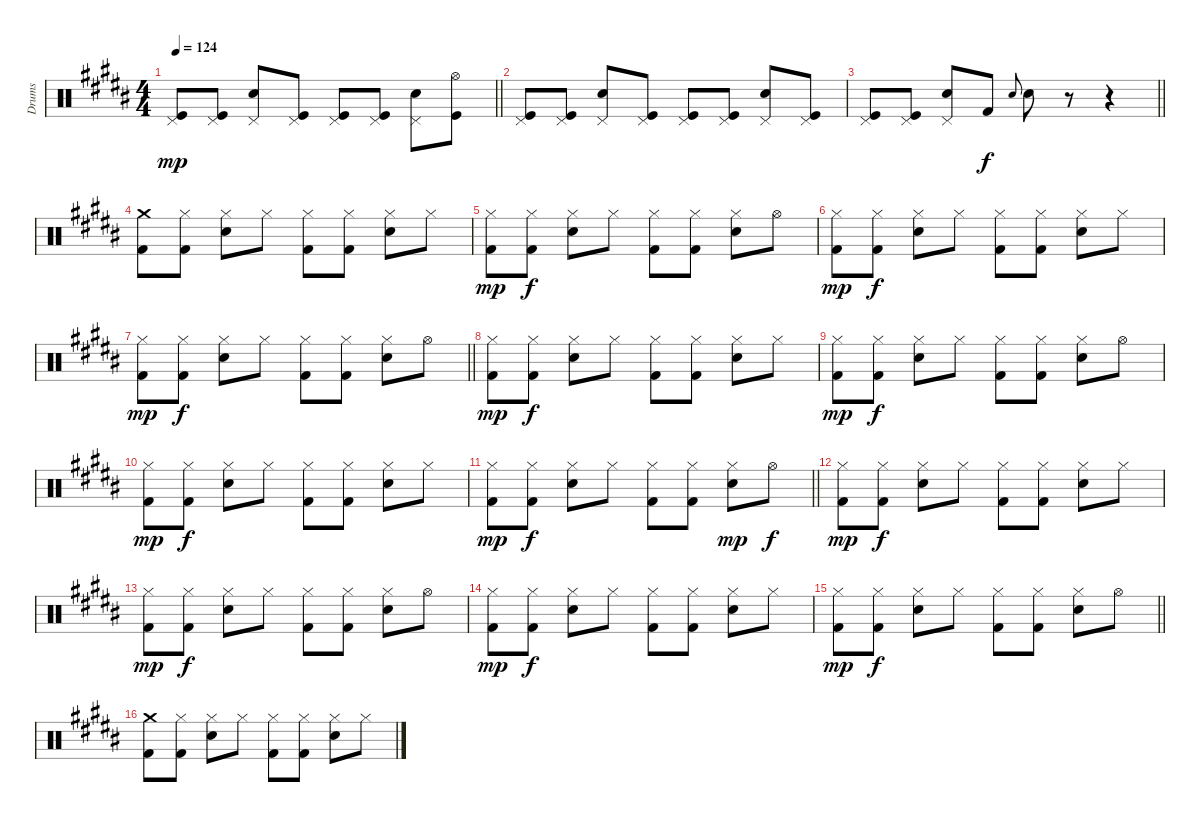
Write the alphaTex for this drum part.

\track ("Drums" "Drums") {instrument percussion}
\staff {score}
\articulation defaults
\ts (4 4)
\tempo 124
\clef neutral
\barLineRight lightlight
\ks b
("Pedal Hi-Hat (hit)" "Kick (hit)").8{dy mp} ("Pedal Hi-Hat (hit)" "Kick (hit)").8 ("Pedal Hi-Hat (hit)" "Electric Snare (hit)").8 ("Pedal Hi-Hat (hit)" "Kick (hit)").8 ("Pedal Hi-Hat (hit)" "Kick (hit)").8 ("Pedal Hi-Hat (hit)" "Kick (hit)").8 ("Pedal Hi-Hat (hit)" "Electric Snare (hit)").8 ("Hi-Hat (open)" "Kick (hit)").8 |
("Pedal Hi-Hat (hit)" "Kick (hit)").8 ("Pedal Hi-Hat (hit)" "Kick (hit)").8 ("Pedal Hi-Hat (hit)" "Electric Snare (hit)").8 ("Pedal Hi-Hat (hit)" "Kick (hit)").8 ("Pedal Hi-Hat (hit)" "Kick (hit)").8 ("Pedal Hi-Hat (hit)" "Kick (hit)").8 ("Pedal Hi-Hat (hit)" "Electric Snare (hit)").8 ("Pedal Hi-Hat (hit)" "Kick (hit)").8 |
\barLineRight lightlight
("Pedal Hi-Hat (hit)" "Kick (hit)").8 ("Pedal Hi-Hat (hit)" "Kick (hit)").8 ("Pedal Hi-Hat (hit)" "Electric Snare (hit)").8 "Kick (hit) 2".8{dy f} "Snare (hit) 2".8{gr onbeat} "Snare (hit) 2".8 r.8 r.4 |
("Crash medium (hit)" "Kick (hit) 2").8 ("Hi-Hat (closed)" "Kick (hit) 2").8 ("Hi-Hat (closed)" "Snare (hit) 2").8 "Hi-Hat (closed)".8 ("Hi-Hat (closed)" "Kick (hit) 2").8 ("Hi-Hat (closed)" "Kick (hit) 2").8 ("Hi-Hat (closed)" "Snare (hit) 2").8 "Hi-Hat (closed)".8 |
("Hi-Hat (closed)" "Kick (hit) 2").8{dy mp} ("Hi-Hat (closed)" "Kick (hit) 2").8{dy f} ("Hi-Hat (closed)" "Snare (hit) 2").8 "Hi-Hat (closed)".8 ("Hi-Hat (closed)" "Kick (hit) 2").8 ("Hi-Hat (closed)" "Kick (hit) 2").8 ("Hi-Hat (closed)" "Snare (hit) 2").8 "Hi-Hat (open)".8 |
("Hi-Hat (closed)" "Kick (hit) 2").8{dy mp} ("Hi-Hat (closed)" "Kick (hit) 2").8{dy f} ("Hi-Hat (closed)" "Snare (hit) 2").8 "Hi-Hat (closed)".8 ("Hi-Hat (closed)" "Kick (hit) 2").8 ("Hi-Hat (closed)" "Kick (hit) 2").8 ("Hi-Hat (closed)" "Snare (hit) 2").8 "Hi-Hat (closed)".8 |
\barLineRight lightlight
("Hi-Hat (closed)" "Kick (hit) 2").8{dy mp} ("Hi-Hat (closed)" "Kick (hit) 2").8{dy f} ("Hi-Hat (closed)" "Snare (hit) 2").8 "Hi-Hat (closed)".8 ("Hi-Hat (closed)" "Kick (hit) 2").8 ("Hi-Hat (closed)" "Kick (hit) 2").8 ("Hi-Hat (closed)" "Snare (hit) 2").8 "Hi-Hat (open)".8 |
("Hi-Hat (closed)" "Kick (hit) 2").8{dy mp} ("Hi-Hat (closed)" "Kick (hit) 2").8{dy f} ("Hi-Hat (closed)" "Snare (hit) 2").8 "Hi-Hat (closed)".8 ("Hi-Hat (closed)" "Kick (hit) 2").8 ("Hi-Hat (closed)" "Kick (hit) 2").8 ("Hi-Hat (closed)" "Snare (hit) 2").8 "Hi-Hat (closed)".8 |
("Hi-Hat (closed)" "Kick (hit) 2").8{dy mp} ("Hi-Hat (closed)" "Kick (hit) 2").8{dy f} ("Hi-Hat (closed)" "Snare (hit) 2").8 "Hi-Hat (closed)".8 ("Hi-Hat (closed)" "Kick (hit) 2").8 ("Hi-Hat (closed)" "Kick (hit) 2").8 ("Hi-Hat (closed)" "Snare (hit) 2").8 "Hi-Hat (open)".8 |
("Hi-Hat (closed)" "Kick (hit) 2").8{dy mp} ("Hi-Hat (closed)" "Kick (hit) 2").8{dy f} ("Hi-Hat (closed)" "Snare (hit) 2").8 "Hi-Hat (closed)".8 ("Hi-Hat (closed)" "Kick (hit) 2").8 ("Hi-Hat (closed)" "Kick (hit) 2").8 ("Hi-Hat (closed)" "Snare (hit) 2").8 "Hi-Hat (closed)".8 |
\barLineRight lightlight
("Hi-Hat (closed)" "Kick (hit) 2").8{dy mp} ("Hi-Hat (closed)" "Kick (hit) 2").8{dy f} ("Hi-Hat (closed)" "Snare (hit) 2").8 "Hi-Hat (closed)".8 ("Hi-Hat (closed)" "Kick (hit) 2").8 ("Hi-Hat (closed)" "Kick (hit) 2").8 ("Hi-Hat (closed)" "Snare (hit) 2").8{dy mp} "Hi-Hat (open)".8{dy f} |
("Hi-Hat (closed)" "Kick (hit) 2").8{dy mp} ("Hi-Hat (closed)" "Kick (hit) 2").8{dy f} ("Hi-Hat (closed)" "Snare (hit) 2").8 "Hi-Hat (closed)".8 ("Hi-Hat (closed)" "Kick (hit) 2").8 ("Hi-Hat (closed)" "Kick (hit) 2").8 ("Hi-Hat (closed)" "Snare (hit) 2").8 "Hi-Hat (closed)".8 |
("Hi-Hat (closed)" "Kick (hit) 2").8{dy mp} ("Hi-Hat (closed)" "Kick (hit) 2").8{dy f} ("Hi-Hat (closed)" "Snare (hit) 2").8 "Hi-Hat (closed)".8 ("Hi-Hat (closed)" "Kick (hit) 2").8 ("Hi-Hat (closed)" "Kick (hit) 2").8 ("Hi-Hat (closed)" "Snare (hit) 2").8 "Hi-Hat (open)".8 |
("Hi-Hat (closed)" "Kick (hit) 2").8{dy mp} ("Hi-Hat (closed)" "Kick (hit) 2").8{dy f} ("Hi-Hat (closed)" "Snare (hit) 2").8 "Hi-Hat (closed)".8 ("Hi-Hat (closed)" "Kick (hit) 2").8 ("Hi-Hat (closed)" "Kick (hit) 2").8 ("Hi-Hat (closed)" "Snare (hit) 2").8 "Hi-Hat (closed)".8 |
\barLineRight lightlight
("Hi-Hat (closed)" "Kick (hit) 2").8{dy mp} ("Hi-Hat (closed)" "Kick (hit) 2").8{dy f} ("Hi-Hat (closed)" "Snare (hit) 2").8 "Hi-Hat (closed)".8 ("Hi-Hat (closed)" "Kick (hit) 2").8 ("Hi-Hat (closed)" "Kick (hit) 2").8 ("Hi-Hat (closed)" "Snare (hit) 2").8 "Hi-Hat (open)".8 |
("Crash medium (hit)" "Kick (hit) 2").8 ("Hi-Hat (closed)" "Kick (hit) 2").8 ("Hi-Hat (closed)" "Snare (hit) 2").8 "Hi-Hat (closed)".8 ("Hi-Hat (closed)" "Kick (hit) 2").8 ("Hi-Hat (closed)" "Kick (hit) 2").8 ("Hi-Hat (closed)" "Snare (hit) 2").8 "Hi-Hat (closed)".8
